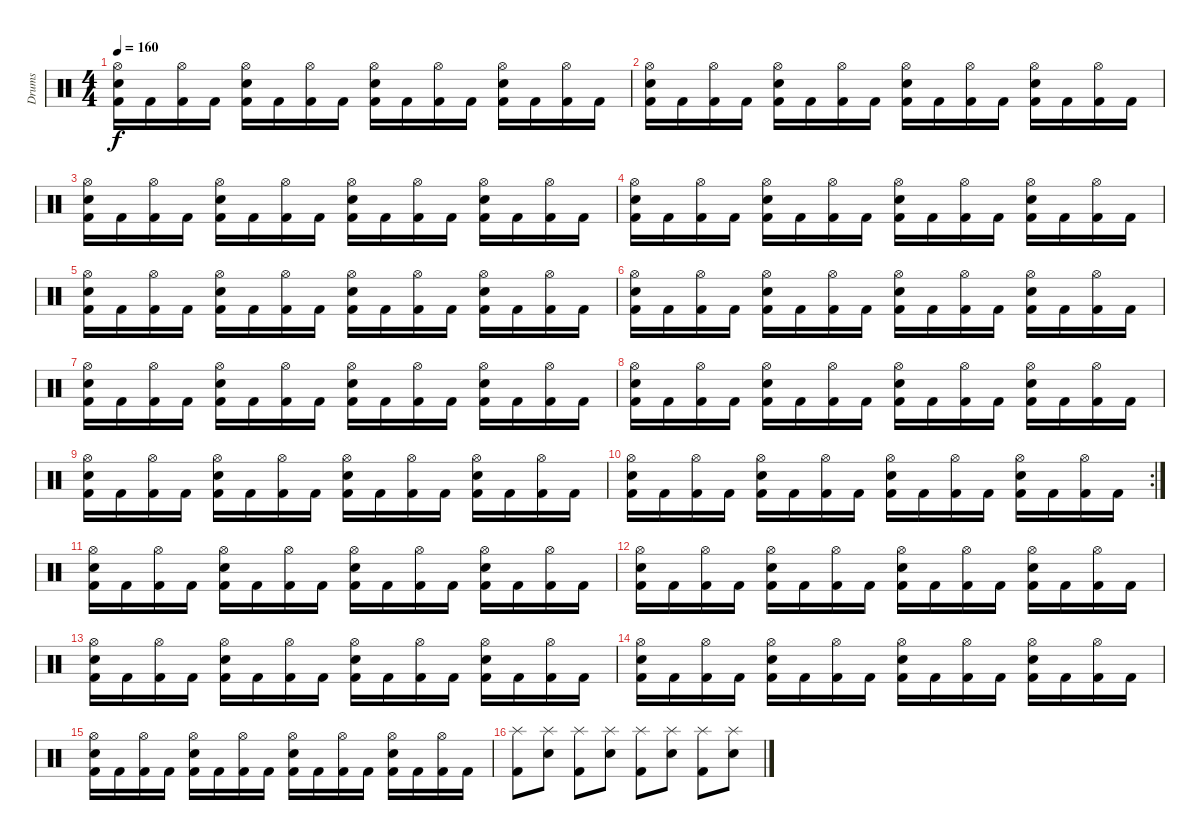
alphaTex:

\track ("Drums" "Drums") {instrument percussion}
\staff {score}
\articulation defaults
\ts (4 4)
\tempo 160
\clef neutral
\ks c
("Hi-Hat (open)" "Electric Snare (hit)" "Kick (hit) 2").16{dy f} "Kick (hit) 2".16 ("Hi-Hat (open)" "Kick (hit) 2").16 "Kick (hit) 2".16 ("Hi-Hat (open)" "Electric Snare (hit)" "Kick (hit) 2").16 "Kick (hit) 2".16 ("Hi-Hat (open)" "Kick (hit) 2").16 "Kick (hit) 2".16 ("Hi-Hat (open)" "Electric Snare (hit)" "Kick (hit) 2").16 "Kick (hit) 2".16 ("Hi-Hat (open)" "Kick (hit) 2").16 "Kick (hit) 2".16 ("Hi-Hat (open)" "Electric Snare (hit)" "Kick (hit) 2").16 "Kick (hit) 2".16 ("Hi-Hat (open)" "Kick (hit) 2").16 "Kick (hit) 2".16 |
("Hi-Hat (open)" "Electric Snare (hit)" "Kick (hit) 2").16 "Kick (hit) 2".16 ("Hi-Hat (open)" "Kick (hit) 2").16 "Kick (hit) 2".16 ("Hi-Hat (open)" "Electric Snare (hit)" "Kick (hit) 2").16 "Kick (hit) 2".16 ("Hi-Hat (open)" "Kick (hit) 2").16 "Kick (hit) 2".16 ("Hi-Hat (open)" "Electric Snare (hit)" "Kick (hit) 2").16 "Kick (hit) 2".16 ("Hi-Hat (open)" "Kick (hit) 2").16 "Kick (hit) 2".16 ("Hi-Hat (open)" "Electric Snare (hit)" "Kick (hit) 2").16 "Kick (hit) 2".16 ("Hi-Hat (open)" "Kick (hit) 2").16 "Kick (hit) 2".16 |
("Hi-Hat (open)" "Electric Snare (hit)" "Kick (hit) 2").16 "Kick (hit) 2".16 ("Hi-Hat (open)" "Kick (hit) 2").16 "Kick (hit) 2".16 ("Hi-Hat (open)" "Electric Snare (hit)" "Kick (hit) 2").16 "Kick (hit) 2".16 ("Hi-Hat (open)" "Kick (hit) 2").16 "Kick (hit) 2".16 ("Hi-Hat (open)" "Electric Snare (hit)" "Kick (hit) 2").16 "Kick (hit) 2".16 ("Hi-Hat (open)" "Kick (hit) 2").16 "Kick (hit) 2".16 ("Hi-Hat (open)" "Electric Snare (hit)" "Kick (hit) 2").16 "Kick (hit) 2".16 ("Hi-Hat (open)" "Kick (hit) 2").16 "Kick (hit) 2".16 |
("Hi-Hat (open)" "Electric Snare (hit)" "Kick (hit) 2").16 "Kick (hit) 2".16 ("Hi-Hat (open)" "Kick (hit) 2").16 "Kick (hit) 2".16 ("Hi-Hat (open)" "Electric Snare (hit)" "Kick (hit) 2").16 "Kick (hit) 2".16 ("Hi-Hat (open)" "Kick (hit) 2").16 "Kick (hit) 2".16 ("Hi-Hat (open)" "Electric Snare (hit)" "Kick (hit) 2").16 "Kick (hit) 2".16 ("Hi-Hat (open)" "Kick (hit) 2").16 "Kick (hit) 2".16 ("Hi-Hat (open)" "Electric Snare (hit)" "Kick (hit) 2").16 "Kick (hit) 2".16 ("Hi-Hat (open)" "Kick (hit) 2").16 "Kick (hit) 2".16 |
("Hi-Hat (open)" "Electric Snare (hit)" "Kick (hit) 2").16 "Kick (hit) 2".16 ("Hi-Hat (open)" "Kick (hit) 2").16 "Kick (hit) 2".16 ("Hi-Hat (open)" "Electric Snare (hit)" "Kick (hit) 2").16 "Kick (hit) 2".16 ("Hi-Hat (open)" "Kick (hit) 2").16 "Kick (hit) 2".16 ("Hi-Hat (open)" "Electric Snare (hit)" "Kick (hit) 2").16 "Kick (hit) 2".16 ("Hi-Hat (open)" "Kick (hit) 2").16 "Kick (hit) 2".16 ("Hi-Hat (open)" "Electric Snare (hit)" "Kick (hit) 2").16 "Kick (hit) 2".16 ("Hi-Hat (open)" "Kick (hit) 2").16 "Kick (hit) 2".16 |
("Hi-Hat (open)" "Electric Snare (hit)" "Kick (hit) 2").16 "Kick (hit) 2".16 ("Hi-Hat (open)" "Kick (hit) 2").16 "Kick (hit) 2".16 ("Hi-Hat (open)" "Electric Snare (hit)" "Kick (hit) 2").16 "Kick (hit) 2".16 ("Hi-Hat (open)" "Kick (hit) 2").16 "Kick (hit) 2".16 ("Hi-Hat (open)" "Electric Snare (hit)" "Kick (hit) 2").16 "Kick (hit) 2".16 ("Hi-Hat (open)" "Kick (hit) 2").16 "Kick (hit) 2".16 ("Hi-Hat (open)" "Electric Snare (hit)" "Kick (hit) 2").16 "Kick (hit) 2".16 ("Hi-Hat (open)" "Kick (hit) 2").16 "Kick (hit) 2".16 |
("Hi-Hat (open)" "Electric Snare (hit)" "Kick (hit) 2").16 "Kick (hit) 2".16 ("Hi-Hat (open)" "Kick (hit) 2").16 "Kick (hit) 2".16 ("Hi-Hat (open)" "Electric Snare (hit)" "Kick (hit) 2").16 "Kick (hit) 2".16 ("Hi-Hat (open)" "Kick (hit) 2").16 "Kick (hit) 2".16 ("Hi-Hat (open)" "Electric Snare (hit)" "Kick (hit) 2").16 "Kick (hit) 2".16 ("Hi-Hat (open)" "Kick (hit) 2").16 "Kick (hit) 2".16 ("Hi-Hat (open)" "Electric Snare (hit)" "Kick (hit) 2").16 "Kick (hit) 2".16 ("Hi-Hat (open)" "Kick (hit) 2").16 "Kick (hit) 2".16 |
("Hi-Hat (open)" "Electric Snare (hit)" "Kick (hit) 2").16 "Kick (hit) 2".16 ("Hi-Hat (open)" "Kick (hit) 2").16 "Kick (hit) 2".16 ("Hi-Hat (open)" "Electric Snare (hit)" "Kick (hit) 2").16 "Kick (hit) 2".16 ("Hi-Hat (open)" "Kick (hit) 2").16 "Kick (hit) 2".16 ("Hi-Hat (open)" "Electric Snare (hit)" "Kick (hit) 2").16 "Kick (hit) 2".16 ("Hi-Hat (open)" "Kick (hit) 2").16 "Kick (hit) 2".16 ("Hi-Hat (open)" "Electric Snare (hit)" "Kick (hit) 2").16 "Kick (hit) 2".16 ("Hi-Hat (open)" "Kick (hit) 2").16 "Kick (hit) 2".16 |
("Hi-Hat (open)" "Electric Snare (hit)" "Kick (hit) 2").16 "Kick (hit) 2".16 ("Hi-Hat (open)" "Kick (hit) 2").16 "Kick (hit) 2".16 ("Hi-Hat (open)" "Electric Snare (hit)" "Kick (hit) 2").16 "Kick (hit) 2".16 ("Hi-Hat (open)" "Kick (hit) 2").16 "Kick (hit) 2".16 ("Hi-Hat (open)" "Electric Snare (hit)" "Kick (hit) 2").16 "Kick (hit) 2".16 ("Hi-Hat (open)" "Kick (hit) 2").16 "Kick (hit) 2".16 ("Hi-Hat (open)" "Electric Snare (hit)" "Kick (hit) 2").16 "Kick (hit) 2".16 ("Hi-Hat (open)" "Kick (hit) 2").16 "Kick (hit) 2".16 |
\rc 2
("Hi-Hat (open)" "Electric Snare (hit)" "Kick (hit) 2").16 "Kick (hit) 2".16 ("Hi-Hat (open)" "Kick (hit) 2").16 "Kick (hit) 2".16 ("Hi-Hat (open)" "Electric Snare (hit)" "Kick (hit) 2").16 "Kick (hit) 2".16 ("Hi-Hat (open)" "Kick (hit) 2").16 "Kick (hit) 2".16 ("Hi-Hat (open)" "Electric Snare (hit)" "Kick (hit) 2").16 "Kick (hit) 2".16 ("Hi-Hat (open)" "Kick (hit) 2").16 "Kick (hit) 2".16 ("Hi-Hat (open)" "Electric Snare (hit)" "Kick (hit) 2").16 "Kick (hit) 2".16 ("Hi-Hat (open)" "Kick (hit) 2").16 "Kick (hit) 2".16 |
("Hi-Hat (open)" "Electric Snare (hit)" "Kick (hit) 2").16 "Kick (hit) 2".16 ("Hi-Hat (open)" "Kick (hit) 2").16 "Kick (hit) 2".16 ("Hi-Hat (open)" "Electric Snare (hit)" "Kick (hit) 2").16 "Kick (hit) 2".16 ("Hi-Hat (open)" "Kick (hit) 2").16 "Kick (hit) 2".16 ("Hi-Hat (open)" "Electric Snare (hit)" "Kick (hit) 2").16 "Kick (hit) 2".16 ("Hi-Hat (open)" "Kick (hit) 2").16 "Kick (hit) 2".16 ("Hi-Hat (open)" "Electric Snare (hit)" "Kick (hit) 2").16 "Kick (hit) 2".16 ("Hi-Hat (open)" "Kick (hit) 2").16 "Kick (hit) 2".16 |
("Hi-Hat (open)" "Electric Snare (hit)" "Kick (hit) 2").16 "Kick (hit) 2".16 ("Hi-Hat (open)" "Kick (hit) 2").16 "Kick (hit) 2".16 ("Hi-Hat (open)" "Electric Snare (hit)" "Kick (hit) 2").16 "Kick (hit) 2".16 ("Hi-Hat (open)" "Kick (hit) 2").16 "Kick (hit) 2".16 ("Hi-Hat (open)" "Electric Snare (hit)" "Kick (hit) 2").16 "Kick (hit) 2".16 ("Hi-Hat (open)" "Kick (hit) 2").16 "Kick (hit) 2".16 ("Hi-Hat (open)" "Electric Snare (hit)" "Kick (hit) 2").16 "Kick (hit) 2".16 ("Hi-Hat (open)" "Kick (hit) 2").16 "Kick (hit) 2".16 |
("Hi-Hat (open)" "Electric Snare (hit)" "Kick (hit) 2").16 "Kick (hit) 2".16 ("Hi-Hat (open)" "Kick (hit) 2").16 "Kick (hit) 2".16 ("Hi-Hat (open)" "Electric Snare (hit)" "Kick (hit) 2").16 "Kick (hit) 2".16 ("Hi-Hat (open)" "Kick (hit) 2").16 "Kick (hit) 2".16 ("Hi-Hat (open)" "Electric Snare (hit)" "Kick (hit) 2").16 "Kick (hit) 2".16 ("Hi-Hat (open)" "Kick (hit) 2").16 "Kick (hit) 2".16 ("Hi-Hat (open)" "Electric Snare (hit)" "Kick (hit) 2").16 "Kick (hit) 2".16 ("Hi-Hat (open)" "Kick (hit) 2").16 "Kick (hit) 2".16 |
("Hi-Hat (open)" "Electric Snare (hit)" "Kick (hit) 2").16 "Kick (hit) 2".16 ("Hi-Hat (open)" "Kick (hit) 2").16 "Kick (hit) 2".16 ("Hi-Hat (open)" "Electric Snare (hit)" "Kick (hit) 2").16 "Kick (hit) 2".16 ("Hi-Hat (open)" "Kick (hit) 2").16 "Kick (hit) 2".16 ("Hi-Hat (open)" "Electric Snare (hit)" "Kick (hit) 2").16 "Kick (hit) 2".16 ("Hi-Hat (open)" "Kick (hit) 2").16 "Kick (hit) 2".16 ("Hi-Hat (open)" "Electric Snare (hit)" "Kick (hit) 2").16 "Kick (hit) 2".16 ("Hi-Hat (open)" "Kick (hit) 2").16 "Kick (hit) 2".16 |
("Hi-Hat (open)" "Electric Snare (hit)" "Kick (hit) 2").16 "Kick (hit) 2".16 ("Hi-Hat (open)" "Kick (hit) 2").16 "Kick (hit) 2".16 ("Hi-Hat (open)" "Electric Snare (hit)" "Kick (hit) 2").16 "Kick (hit) 2".16 ("Hi-Hat (open)" "Kick (hit) 2").16 "Kick (hit) 2".16 ("Hi-Hat (open)" "Electric Snare (hit)" "Kick (hit) 2").16 "Kick (hit) 2".16 ("Hi-Hat (open)" "Kick (hit) 2").16 "Kick (hit) 2".16 ("Hi-Hat (open)" "Electric Snare (hit)" "Kick (hit) 2").16 "Kick (hit) 2".16 ("Hi-Hat (open)" "Kick (hit) 2").16 "Kick (hit) 2".16 |
("Splash (hit)" "Kick (hit) 2").8 ("Splash (hit)" "Electric Snare (hit)").8 ("Splash (hit)" "Kick (hit) 2").8 ("Splash (hit)" "Electric Snare (hit)").8 ("Splash (hit)" "Kick (hit) 2").8 ("Splash (hit)" "Electric Snare (hit)").8 ("Splash (hit)" "Kick (hit) 2").8 ("Splash (hit)" "Electric Snare (hit)").8
